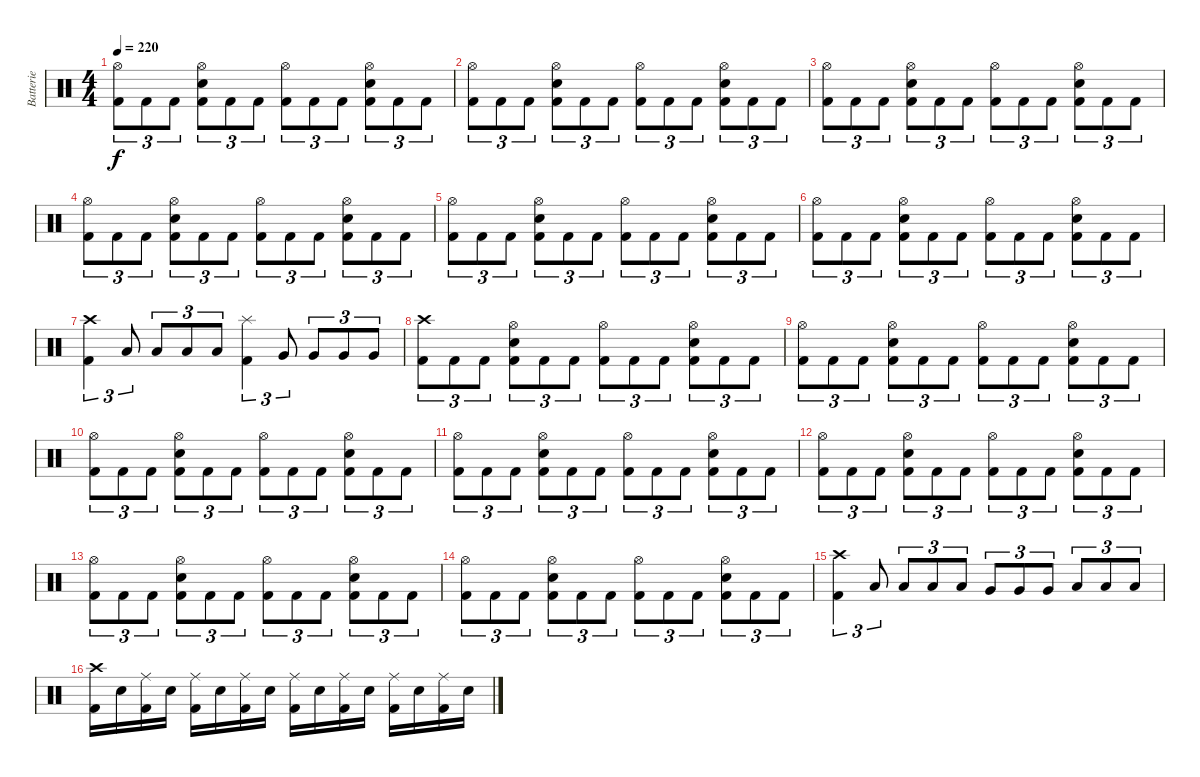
\track ("Batterie" "Batterie") {instrument percussion}
\staff {score}
\articulation defaults
\ts (4 4)
\tempo 220
\clef neutral
\ks c
("Hi-Hat (open)" "Kick (hit) 2").8{tu (3 2) dy f} "Kick (hit) 2".8{tu (3 2)} "Kick (hit) 2".8{tu (3 2)} ("Hi-Hat (open)" "Electric Snare (hit)" "Kick (hit) 2").8{tu (3 2)} "Kick (hit) 2".8{tu (3 2)} "Kick (hit) 2".8{tu (3 2)} ("Hi-Hat (open)" "Kick (hit) 2").8{tu (3 2)} "Kick (hit) 2".8{tu (3 2)} "Kick (hit) 2".8{tu (3 2)} ("Hi-Hat (open)" "Electric Snare (hit)" "Kick (hit) 2").8{tu (3 2)} "Kick (hit) 2".8{tu (3 2)} "Kick (hit) 2".8{tu (3 2)} |
("Hi-Hat (open)" "Kick (hit) 2").8{tu (3 2)} "Kick (hit) 2".8{tu (3 2)} "Kick (hit) 2".8{tu (3 2)} ("Hi-Hat (open)" "Electric Snare (hit)" "Kick (hit) 2").8{tu (3 2)} "Kick (hit) 2".8{tu (3 2)} "Kick (hit) 2".8{tu (3 2)} ("Hi-Hat (open)" "Kick (hit) 2").8{tu (3 2)} "Kick (hit) 2".8{tu (3 2)} "Kick (hit) 2".8{tu (3 2)} ("Hi-Hat (open)" "Electric Snare (hit)" "Kick (hit) 2").8{tu (3 2)} "Kick (hit) 2".8{tu (3 2)} "Kick (hit) 2".8{tu (3 2)} |
("Hi-Hat (open)" "Kick (hit) 2").8{tu (3 2)} "Kick (hit) 2".8{tu (3 2)} "Kick (hit) 2".8{tu (3 2)} ("Hi-Hat (open)" "Electric Snare (hit)" "Kick (hit) 2").8{tu (3 2)} "Kick (hit) 2".8{tu (3 2)} "Kick (hit) 2".8{tu (3 2)} ("Hi-Hat (open)" "Kick (hit) 2").8{tu (3 2)} "Kick (hit) 2".8{tu (3 2)} "Kick (hit) 2".8{tu (3 2)} ("Hi-Hat (open)" "Electric Snare (hit)" "Kick (hit) 2").8{tu (3 2)} "Kick (hit) 2".8{tu (3 2)} "Kick (hit) 2".8{tu (3 2)} |
("Hi-Hat (open)" "Kick (hit) 2").8{tu (3 2)} "Kick (hit) 2".8{tu (3 2)} "Kick (hit) 2".8{tu (3 2)} ("Hi-Hat (open)" "Electric Snare (hit)" "Kick (hit) 2").8{tu (3 2)} "Kick (hit) 2".8{tu (3 2)} "Kick (hit) 2".8{tu (3 2)} ("Hi-Hat (open)" "Kick (hit) 2").8{tu (3 2)} "Kick (hit) 2".8{tu (3 2)} "Kick (hit) 2".8{tu (3 2)} ("Hi-Hat (open)" "Electric Snare (hit)" "Kick (hit) 2").8{tu (3 2)} "Kick (hit) 2".8{tu (3 2)} "Kick (hit) 2".8{tu (3 2)} |
("Hi-Hat (open)" "Kick (hit) 2").8{tu (3 2)} "Kick (hit) 2".8{tu (3 2)} "Kick (hit) 2".8{tu (3 2)} ("Hi-Hat (open)" "Electric Snare (hit)" "Kick (hit) 2").8{tu (3 2)} "Kick (hit) 2".8{tu (3 2)} "Kick (hit) 2".8{tu (3 2)} ("Hi-Hat (open)" "Kick (hit) 2").8{tu (3 2)} "Kick (hit) 2".8{tu (3 2)} "Kick (hit) 2".8{tu (3 2)} ("Hi-Hat (open)" "Electric Snare (hit)" "Kick (hit) 2").8{tu (3 2)} "Kick (hit) 2".8{tu (3 2)} "Kick (hit) 2".8{tu (3 2)} |
("Hi-Hat (open)" "Kick (hit) 2").8{tu (3 2)} "Kick (hit) 2".8{tu (3 2)} "Kick (hit) 2".8{tu (3 2)} ("Hi-Hat (open)" "Electric Snare (hit)" "Kick (hit) 2").8{tu (3 2)} "Kick (hit) 2".8{tu (3 2)} "Kick (hit) 2".8{tu (3 2)} ("Hi-Hat (open)" "Kick (hit) 2").8{tu (3 2)} "Kick (hit) 2".8{tu (3 2)} "Kick (hit) 2".8{tu (3 2)} ("Hi-Hat (open)" "Electric Snare (hit)" "Kick (hit) 2").8{tu (3 2)} "Kick (hit) 2".8{tu (3 2)} "Kick (hit) 2".8{tu (3 2)} |
("Crash high (hit)" "Kick (hit) 2").4{tu (3 2)} "Low Tom (hit)".8{tu (3 2)} "Low Tom (hit)".8{tu (3 2)} "Low Tom (hit)".8{tu (3 2)} "Low Tom (hit)".8{tu (3 2)} ("Splash (hit)" "Kick (hit) 2").4{tu (3 2)} "Very Low Tom (hit)".8{tu (3 2)} "Very Low Tom (hit)".8{tu (3 2)} "Very Low Tom (hit)".8{tu (3 2)} "Very Low Tom (hit)".8{tu (3 2)} |
("Crash high (hit)" "Kick (hit) 2").8{tu (3 2)} "Kick (hit) 2".8{tu (3 2)} "Kick (hit) 2".8{tu (3 2)} ("Hi-Hat (open)" "Electric Snare (hit)" "Kick (hit) 2").8{tu (3 2)} "Kick (hit) 2".8{tu (3 2)} "Kick (hit) 2".8{tu (3 2)} ("Hi-Hat (open)" "Kick (hit) 2").8{tu (3 2)} "Kick (hit) 2".8{tu (3 2)} "Kick (hit) 2".8{tu (3 2)} ("Hi-Hat (open)" "Electric Snare (hit)" "Kick (hit) 2").8{tu (3 2)} "Kick (hit) 2".8{tu (3 2)} "Kick (hit) 2".8{tu (3 2)} |
("Hi-Hat (open)" "Kick (hit) 2").8{tu (3 2)} "Kick (hit) 2".8{tu (3 2)} "Kick (hit) 2".8{tu (3 2)} ("Hi-Hat (open)" "Electric Snare (hit)" "Kick (hit) 2").8{tu (3 2)} "Kick (hit) 2".8{tu (3 2)} "Kick (hit) 2".8{tu (3 2)} ("Hi-Hat (open)" "Kick (hit) 2").8{tu (3 2)} "Kick (hit) 2".8{tu (3 2)} "Kick (hit) 2".8{tu (3 2)} ("Hi-Hat (open)" "Electric Snare (hit)" "Kick (hit) 2").8{tu (3 2)} "Kick (hit) 2".8{tu (3 2)} "Kick (hit) 2".8{tu (3 2)} |
("Hi-Hat (open)" "Kick (hit) 2").8{tu (3 2)} "Kick (hit) 2".8{tu (3 2)} "Kick (hit) 2".8{tu (3 2)} ("Hi-Hat (open)" "Electric Snare (hit)" "Kick (hit) 2").8{tu (3 2)} "Kick (hit) 2".8{tu (3 2)} "Kick (hit) 2".8{tu (3 2)} ("Hi-Hat (open)" "Kick (hit) 2").8{tu (3 2)} "Kick (hit) 2".8{tu (3 2)} "Kick (hit) 2".8{tu (3 2)} ("Hi-Hat (open)" "Electric Snare (hit)" "Kick (hit) 2").8{tu (3 2)} "Kick (hit) 2".8{tu (3 2)} "Kick (hit) 2".8{tu (3 2)} |
("Hi-Hat (open)" "Kick (hit) 2").8{tu (3 2)} "Kick (hit) 2".8{tu (3 2)} "Kick (hit) 2".8{tu (3 2)} ("Hi-Hat (open)" "Electric Snare (hit)" "Kick (hit) 2").8{tu (3 2)} "Kick (hit) 2".8{tu (3 2)} "Kick (hit) 2".8{tu (3 2)} ("Hi-Hat (open)" "Kick (hit) 2").8{tu (3 2)} "Kick (hit) 2".8{tu (3 2)} "Kick (hit) 2".8{tu (3 2)} ("Hi-Hat (open)" "Electric Snare (hit)" "Kick (hit) 2").8{tu (3 2)} "Kick (hit) 2".8{tu (3 2)} "Kick (hit) 2".8{tu (3 2)} |
("Hi-Hat (open)" "Kick (hit) 2").8{tu (3 2)} "Kick (hit) 2".8{tu (3 2)} "Kick (hit) 2".8{tu (3 2)} ("Hi-Hat (open)" "Electric Snare (hit)" "Kick (hit) 2").8{tu (3 2)} "Kick (hit) 2".8{tu (3 2)} "Kick (hit) 2".8{tu (3 2)} ("Hi-Hat (open)" "Kick (hit) 2").8{tu (3 2)} "Kick (hit) 2".8{tu (3 2)} "Kick (hit) 2".8{tu (3 2)} ("Hi-Hat (open)" "Electric Snare (hit)" "Kick (hit) 2").8{tu (3 2)} "Kick (hit) 2".8{tu (3 2)} "Kick (hit) 2".8{tu (3 2)} |
("Hi-Hat (open)" "Kick (hit) 2").8{tu (3 2)} "Kick (hit) 2".8{tu (3 2)} "Kick (hit) 2".8{tu (3 2)} ("Hi-Hat (open)" "Electric Snare (hit)" "Kick (hit) 2").8{tu (3 2)} "Kick (hit) 2".8{tu (3 2)} "Kick (hit) 2".8{tu (3 2)} ("Hi-Hat (open)" "Kick (hit) 2").8{tu (3 2)} "Kick (hit) 2".8{tu (3 2)} "Kick (hit) 2".8{tu (3 2)} ("Hi-Hat (open)" "Electric Snare (hit)" "Kick (hit) 2").8{tu (3 2)} "Kick (hit) 2".8{tu (3 2)} "Kick (hit) 2".8{tu (3 2)} |
("Hi-Hat (open)" "Kick (hit) 2").8{tu (3 2)} "Kick (hit) 2".8{tu (3 2)} "Kick (hit) 2".8{tu (3 2)} ("Hi-Hat (open)" "Electric Snare (hit)" "Kick (hit) 2").8{tu (3 2)} "Kick (hit) 2".8{tu (3 2)} "Kick (hit) 2".8{tu (3 2)} ("Hi-Hat (open)" "Kick (hit) 2").8{tu (3 2)} "Kick (hit) 2".8{tu (3 2)} "Kick (hit) 2".8{tu (3 2)} ("Hi-Hat (open)" "Electric Snare (hit)" "Kick (hit) 2").8{tu (3 2)} "Kick (hit) 2".8{tu (3 2)} "Kick (hit) 2".8{tu (3 2)} |
("Crash high (hit)" "Kick (hit) 2").4{tu (3 2)} "Low Tom (hit)".8{tu (3 2)} "Low Tom (hit)".8{tu (3 2)} "Low Tom (hit)".8{tu (3 2)} "Low Tom (hit)".8{tu (3 2)} "Very Low Tom (hit)".8{tu (3 2)} "Very Low Tom (hit)".8{tu (3 2)} "Very Low Tom (hit)".8{tu (3 2)} "Low Floor Tom (hit)".8{tu (3 2)} "Low Floor Tom (hit)".8{tu (3 2)} "Low Floor Tom (hit)".8{tu (3 2)} |
("Crash high (hit)" "Kick (hit) 2").16 "Electric Snare (hit)".16 ("Ride (middle)" "Kick (hit) 2").16 "Electric Snare (hit)".16 ("Ride (middle)" "Kick (hit) 2").16 "Electric Snare (hit)".16 ("Ride (middle)" "Kick (hit) 2").16 "Electric Snare (hit)".16 ("Ride (middle)" "Kick (hit) 2").16 "Electric Snare (hit)".16 ("Ride (middle)" "Kick (hit) 2").16 "Electric Snare (hit)".16 ("Ride (middle)" "Kick (hit) 2").16 "Electric Snare (hit)".16 ("Ride (middle)" "Kick (hit) 2").16 "Electric Snare (hit)".16
